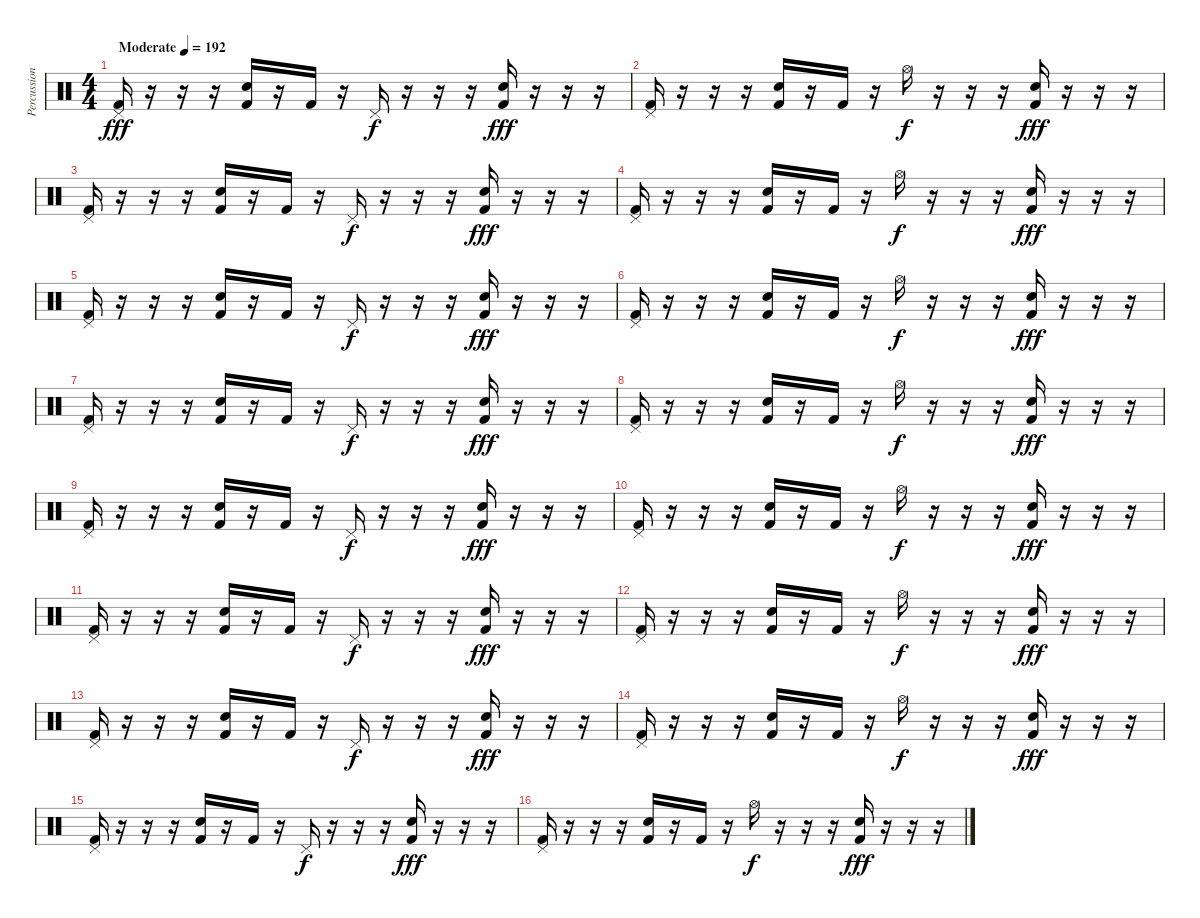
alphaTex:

\track ("Percussion" "Percussion") {instrument percussion}
\staff {score}
\articulation defaults
\ts (4 4)
\tempo (192 "Moderate")
\clef neutral
\ks c
("Pedal Hi-Hat (hit)" "Kick (hit) 2").16{dy fff} r.16 r.16 r.16 ("Snare (hit) 2" "Kick (hit) 2").16 r.16 "Kick (hit) 2".16 r.16 "Pedal Hi-Hat (hit)".16{dy f} r.16 r.16 r.16 ("Snare (hit) 2" "Kick (hit) 2").16{dy fff} r.16 r.16 r.16 |
("Pedal Hi-Hat (hit)" "Kick (hit) 2").16 r.16 r.16 r.16 ("Snare (hit) 2" "Kick (hit) 2").16 r.16 "Kick (hit) 2".16 r.16 "Hi-Hat (open)".16{dy f} r.16 r.16 r.16 ("Snare (hit) 2" "Kick (hit) 2").16{dy fff} r.16 r.16 r.16 |
("Pedal Hi-Hat (hit)" "Kick (hit) 2").16 r.16 r.16 r.16 ("Snare (hit) 2" "Kick (hit) 2").16 r.16 "Kick (hit) 2".16 r.16 "Pedal Hi-Hat (hit)".16{dy f} r.16 r.16 r.16 ("Snare (hit) 2" "Kick (hit) 2").16{dy fff} r.16 r.16 r.16 |
("Pedal Hi-Hat (hit)" "Kick (hit) 2").16 r.16 r.16 r.16 ("Snare (hit) 2" "Kick (hit) 2").16 r.16 "Kick (hit) 2".16 r.16 "Hi-Hat (open)".16{dy f} r.16 r.16 r.16 ("Snare (hit) 2" "Kick (hit) 2").16{dy fff} r.16 r.16 r.16 |
("Pedal Hi-Hat (hit)" "Kick (hit) 2").16 r.16 r.16 r.16 ("Snare (hit) 2" "Kick (hit) 2").16 r.16 "Kick (hit) 2".16 r.16 "Pedal Hi-Hat (hit)".16{dy f} r.16 r.16 r.16 ("Snare (hit) 2" "Kick (hit) 2").16{dy fff} r.16 r.16 r.16 |
("Pedal Hi-Hat (hit)" "Kick (hit) 2").16 r.16 r.16 r.16 ("Snare (hit) 2" "Kick (hit) 2").16 r.16 "Kick (hit) 2".16 r.16 "Hi-Hat (open)".16{dy f} r.16 r.16 r.16 ("Snare (hit) 2" "Kick (hit) 2").16{dy fff} r.16 r.16 r.16 |
("Pedal Hi-Hat (hit)" "Kick (hit) 2").16 r.16 r.16 r.16 ("Snare (hit) 2" "Kick (hit) 2").16 r.16 "Kick (hit) 2".16 r.16 "Pedal Hi-Hat (hit)".16{dy f} r.16 r.16 r.16 ("Snare (hit) 2" "Kick (hit) 2").16{dy fff} r.16 r.16 r.16 |
("Pedal Hi-Hat (hit)" "Kick (hit) 2").16 r.16 r.16 r.16 ("Snare (hit) 2" "Kick (hit) 2").16 r.16 "Kick (hit) 2".16 r.16 "Hi-Hat (open)".16{dy f} r.16 r.16 r.16 ("Snare (hit) 2" "Kick (hit) 2").16{dy fff} r.16 r.16 r.16 |
("Pedal Hi-Hat (hit)" "Kick (hit) 2").16 r.16 r.16 r.16 ("Snare (hit) 2" "Kick (hit) 2").16 r.16 "Kick (hit) 2".16 r.16 "Pedal Hi-Hat (hit)".16{dy f} r.16 r.16 r.16 ("Snare (hit) 2" "Kick (hit) 2").16{dy fff} r.16 r.16 r.16 |
("Pedal Hi-Hat (hit)" "Kick (hit) 2").16 r.16 r.16 r.16 ("Snare (hit) 2" "Kick (hit) 2").16 r.16 "Kick (hit) 2".16 r.16 "Hi-Hat (open)".16{dy f} r.16 r.16 r.16 ("Snare (hit) 2" "Kick (hit) 2").16{dy fff} r.16 r.16 r.16 |
("Pedal Hi-Hat (hit)" "Kick (hit) 2").16 r.16 r.16 r.16 ("Snare (hit) 2" "Kick (hit) 2").16 r.16 "Kick (hit) 2".16 r.16 "Pedal Hi-Hat (hit)".16{dy f} r.16 r.16 r.16 ("Snare (hit) 2" "Kick (hit) 2").16{dy fff} r.16 r.16 r.16 |
("Pedal Hi-Hat (hit)" "Kick (hit) 2").16 r.16 r.16 r.16 ("Snare (hit) 2" "Kick (hit) 2").16 r.16 "Kick (hit) 2".16 r.16 "Hi-Hat (open)".16{dy f} r.16 r.16 r.16 ("Snare (hit) 2" "Kick (hit) 2").16{dy fff} r.16 r.16 r.16 |
("Pedal Hi-Hat (hit)" "Kick (hit) 2").16 r.16 r.16 r.16 ("Snare (hit) 2" "Kick (hit) 2").16 r.16 "Kick (hit) 2".16 r.16 "Pedal Hi-Hat (hit)".16{dy f} r.16 r.16 r.16 ("Snare (hit) 2" "Kick (hit) 2").16{dy fff} r.16 r.16 r.16 |
("Pedal Hi-Hat (hit)" "Kick (hit) 2").16 r.16 r.16 r.16 ("Snare (hit) 2" "Kick (hit) 2").16 r.16 "Kick (hit) 2".16 r.16 "Hi-Hat (open)".16{dy f} r.16 r.16 r.16 ("Snare (hit) 2" "Kick (hit) 2").16{dy fff} r.16 r.16 r.16 |
("Pedal Hi-Hat (hit)" "Kick (hit) 2").16 r.16 r.16 r.16 ("Snare (hit) 2" "Kick (hit) 2").16 r.16 "Kick (hit) 2".16 r.16 "Pedal Hi-Hat (hit)".16{dy f} r.16 r.16 r.16 ("Snare (hit) 2" "Kick (hit) 2").16{dy fff} r.16 r.16 r.16 |
("Pedal Hi-Hat (hit)" "Kick (hit) 2").16 r.16 r.16 r.16 ("Snare (hit) 2" "Kick (hit) 2").16 r.16 "Kick (hit) 2".16 r.16 "Hi-Hat (open)".16{dy f} r.16 r.16 r.16 ("Snare (hit) 2" "Kick (hit) 2").16{dy fff} r.16 r.16 r.16
